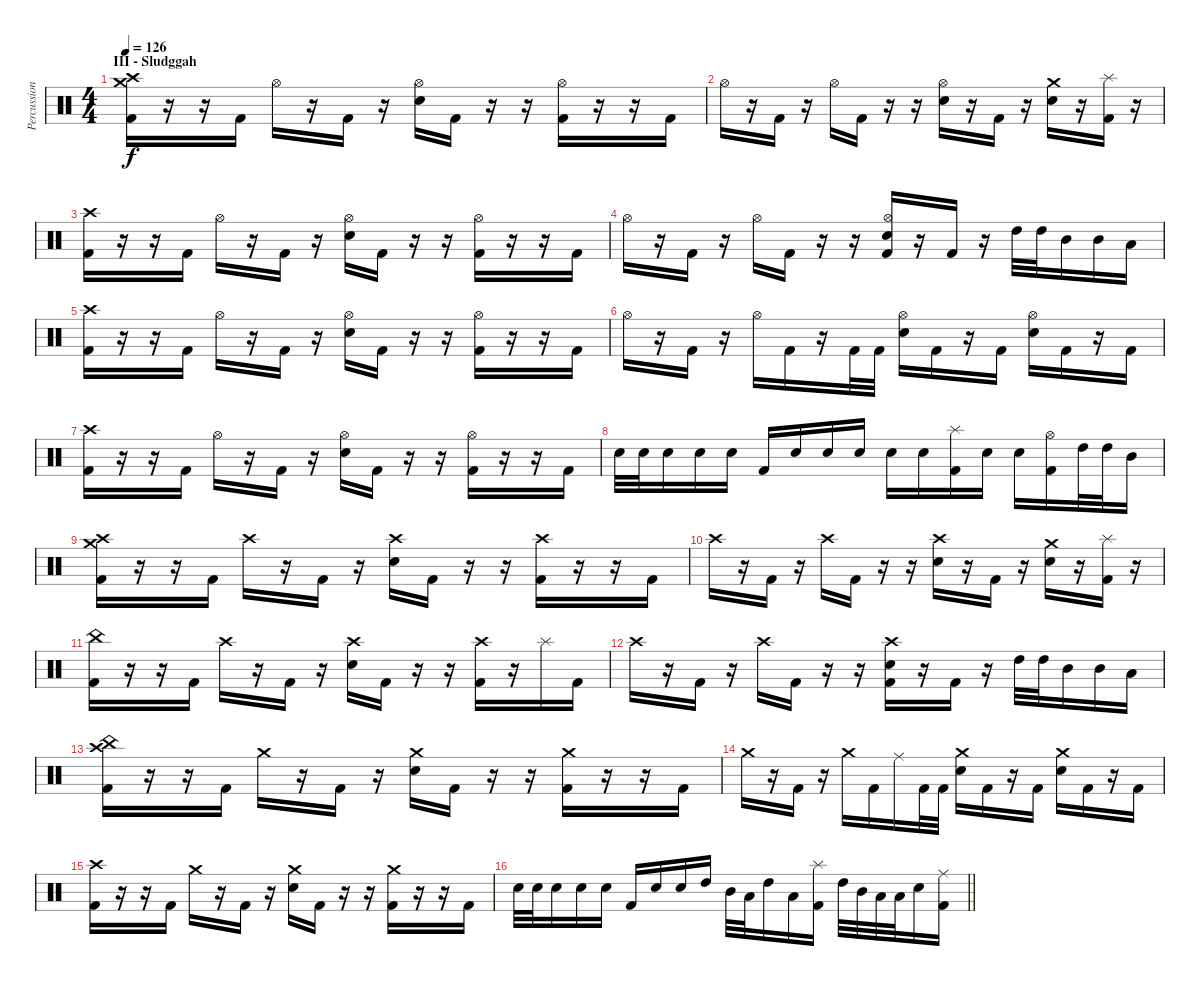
\track ("Percussion" "Percussion") {instrument percussion}
\staff {score}
\articulation defaults
\ts (4 4)
\section ("" "III - Sludggah")
\tempo 126
\clef neutral
\ks c
("Crash high (hit)" "Crash medium (hit)" "Kick (hit) 2").16{dy f} r.16 r.16 "Kick (hit) 2".16 "Hi-Hat (open)".16 r.16 "Kick (hit) 2".16 r.16 ("Hi-Hat (open)" "Snare (hit) 2").16 "Kick (hit) 2".16 r.16 r.16 ("Hi-Hat (open)" "Kick (hit) 2").16 r.16 r.16 "Kick (hit) 2".16 |
"Hi-Hat (open)".16 r.16 "Kick (hit) 2".16 r.16 "Hi-Hat (open)".16 "Kick (hit) 2".16 r.16 r.16 ("Hi-Hat (open)" "Snare (hit) 2").16 r.16 "Kick (hit) 2".16 r.16 ("Crash medium (hit)" "Snare (hit) 2").16 r.16 ("Splash (hit)" "Kick (hit) 2").16 r.16 |
("Crash high (hit)" "Kick (hit) 2").16 r.16 r.16 "Kick (hit) 2".16 "Hi-Hat (open)".16 r.16 "Kick (hit) 2".16 r.16 ("Hi-Hat (open)" "Snare (hit) 2").16 "Kick (hit) 2".16 r.16 r.16 ("Hi-Hat (open)" "Kick (hit) 2").16 r.16 r.16 "Kick (hit) 2".16 |
"Hi-Hat (open)".16 r.16 "Kick (hit) 2".16 r.16 "Hi-Hat (open)".16 "Kick (hit) 2".16 r.16 r.16 ("Hi-Hat (open)" "Snare (hit) 2" "Kick (hit) 2").16 r.16 "Kick (hit) 2".16 r.16 "High Tom (hit)".32 "High Tom (hit)".32 "Mid Tom (hit)".16 "Mid Tom (hit)".16 "Low Tom (hit)".16 |
("Crash high (hit)" "Kick (hit) 2").16 r.16 r.16 "Kick (hit) 2".16 "Hi-Hat (open)".16 r.16 "Kick (hit) 2".16 r.16 ("Hi-Hat (open)" "Snare (hit) 2").16 "Kick (hit) 2".16 r.16 r.16 ("Hi-Hat (open)" "Kick (hit) 2").16 r.16 r.16 "Kick (hit) 2".16 |
"Hi-Hat (open)".16 r.16 "Kick (hit) 2".16 r.16 "Hi-Hat (open)".16 "Kick (hit) 2".16 r.16 "Kick (hit) 2".32 "Kick (hit) 2".32 ("Hi-Hat (open)" "Snare (hit) 2").16 "Kick (hit) 2".16 r.16 "Kick (hit) 2".16 ("Hi-Hat (open)" "Snare (hit) 2").16 "Kick (hit) 2".16 r.16 "Kick (hit) 2".16 |
("Crash high (hit)" "Kick (hit) 2").16 r.16 r.16 "Kick (hit) 2".16 "Hi-Hat (open)".16 r.16 "Kick (hit) 2".16 r.16 ("Hi-Hat (open)" "Snare (hit) 2").16 "Kick (hit) 2".16 r.16 r.16 ("Hi-Hat (open)" "Kick (hit) 2").16 r.16 r.16 "Kick (hit) 2".16 |
"Electric Snare (hit)".32 "Electric Snare (hit)".32 "Electric Snare (hit)".16 "Snare (hit) 2".16 "Snare (hit) 2".16 "Kick (hit) 2".16 "Snare (hit) 2".16 "Snare (hit) 2".16 "Snare (hit) 2".16 "Snare (hit) 2".16 "Snare (hit) 2".16 ("Splash (hit)" "Kick (hit) 2").16 "Snare (hit) 2".16 "Snare (hit) 2".16 ("Hi-Hat (open)" "Kick (hit) 2").16 "High Tom (hit)".32 "High Tom (hit)".32 "Mid Tom (hit)".16 |
("Crash high (hit)" "Crash medium (hit)" "Kick (hit) 2").16 r.16 r.16 "Kick (hit) 2".16 "Crash high (hit)".16 r.16 "Kick (hit) 2".16 r.16 ("Crash high (hit)" "Snare (hit) 2").16 "Kick (hit) 2".16 r.16 r.16 ("Crash high (hit)" "Kick (hit) 2").16 r.16 r.16 "Kick (hit) 2".16 |
"Crash high (hit)".16 r.16 "Kick (hit) 2".16 r.16 "Crash high (hit)".16 "Kick (hit) 2".16 r.16 r.16 ("Crash high (hit)" "Snare (hit) 2").16 r.16 "Kick (hit) 2".16 r.16 ("Crash medium (hit)" "Snare (hit) 2").16 r.16 ("Splash (hit)" "Kick (hit) 2").16 r.16 |
("China (hit)" "Kick (hit) 2").16 r.16 r.16 "Kick (hit) 2".16 "Crash high (hit)".16 r.16 "Kick (hit) 2".16 r.16 ("Crash high (hit)" "Snare (hit) 2").16 "Kick (hit) 2".16 r.16 r.16 ("Crash high (hit)" "Kick (hit) 2").16 r.16 "Splash (hit)".16 "Kick (hit) 2".16 |
"Crash high (hit)".16 r.16 "Kick (hit) 2".16 r.16 "Crash high (hit)".16 "Kick (hit) 2".16 r.16 r.16 ("Crash high (hit)" "Snare (hit) 2" "Kick (hit) 2").16 r.16 "Kick (hit) 2".16 r.16 "High Tom (hit)".32 "High Tom (hit)".32 "Mid Tom (hit)".16 "Mid Tom (hit)".16 "Low Tom (hit)".16 |
("China (hit)" "Crash high (hit)" "Kick (hit) 2").16 r.16 r.16 "Kick (hit) 2".16 "Crash medium (hit)".16 r.16 "Kick (hit) 2".16 r.16 ("Crash medium (hit)" "Snare (hit) 2").16 "Kick (hit) 2".16 r.16 r.16 ("Crash medium (hit)" "Kick (hit) 2").16 r.16 r.16 "Kick (hit) 2".16 |
"Crash medium (hit)".16 r.16 "Kick (hit) 2".16 r.16 "Crash medium (hit)".16 "Kick (hit) 2".16 "Ride (middle)".16 "Kick (hit) 2".32 "Kick (hit) 2".32 ("Crash medium (hit)" "Snare (hit) 2").16 "Kick (hit) 2".16 r.16 "Kick (hit) 2".16 ("Crash medium (hit)" "Snare (hit) 2").16 "Kick (hit) 2".16 r.16 "Kick (hit) 2".16 |
("Crash high (hit)" "Kick (hit) 2").16 r.16 r.16 "Kick (hit) 2".16 "Crash medium (hit)".16 r.16 "Kick (hit) 2".16 r.16 ("Crash medium (hit)" "Snare (hit) 2").16 "Kick (hit) 2".16 r.16 r.16 ("Crash medium (hit)" "Kick (hit) 2").16 r.16 r.16 "Kick (hit) 2".16 |
\barLineRight lightlight "Electric Snare (hit)".32 "Electric Snare (hit)".32 "Electric Snare (hit)".16 "Snare (hit) 2".16 "Snare (hit) 2".16 "Kick (hit) 2".16 "Snare (hit) 2".16 "Snare (hit) 2".16 "High Tom (hit)".16 "Mid Tom (hit)".32 "Low Tom (hit)".32 "High Tom (hit)".16 "Low Tom (hit)".16
("Splash (hit)" "Kick (hit) 2").16 "High Tom (hit)".32 "Mid Tom (hit)".32 "Low Tom (hit)".32 "Low Tom (hit)".32 "Snare (hit) 2".16 ("Ride (middle)" "Kick (hit) 2").16
